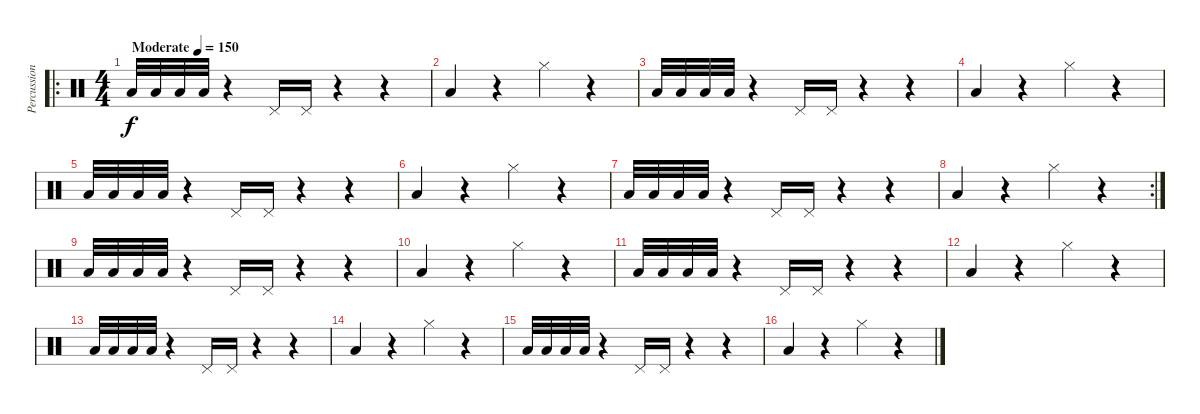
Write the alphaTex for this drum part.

\track ("Percussion" "Percussion") {instrument percussion}
\staff {score}
\articulation defaults
\ro
\ts (4 4)
\tempo (150 "Moderate")
\clef neutral
\ks c "Low Tom (hit)".32{dy f} "Low Tom (hit)".32 "Low Tom (hit)".32 "Low Tom (hit)".32
r.4 "Pedal Hi-Hat (hit)".16 "Pedal Hi-Hat (hit)".16 r.4 r.4 |
"Low Tom (hit)".4 r.4 "Hi-Hat (closed)".4 r.4 |
"Low Tom (hit)".32 "Low Tom (hit)".32 "Low Tom (hit)".32 "Low Tom (hit)".32 r.4 "Pedal Hi-Hat (hit)".16 "Pedal Hi-Hat (hit)".16 r.4 r.4 |
"Low Tom (hit)".4 r.4 "Hi-Hat (closed)".4 r.4 |
"Low Tom (hit)".32 "Low Tom (hit)".32 "Low Tom (hit)".32 "Low Tom (hit)".32 r.4 "Pedal Hi-Hat (hit)".16 "Pedal Hi-Hat (hit)".16 r.4 r.4 |
"Low Tom (hit)".4 r.4 "Hi-Hat (closed)".4 r.4 |
"Low Tom (hit)".32 "Low Tom (hit)".32 "Low Tom (hit)".32 "Low Tom (hit)".32 r.4 "Pedal Hi-Hat (hit)".16 "Pedal Hi-Hat (hit)".16 r.4 r.4 |
\rc 2 "Low Tom (hit)".4
r.4 "Hi-Hat (closed)".4 r.4 |
"Low Tom (hit)".32 "Low Tom (hit)".32 "Low Tom (hit)".32 "Low Tom (hit)".32 r.4 "Pedal Hi-Hat (hit)".16 "Pedal Hi-Hat (hit)".16 r.4 r.4 |
"Low Tom (hit)".4 r.4 "Hi-Hat (closed)".4 r.4 |
"Low Tom (hit)".32 "Low Tom (hit)".32 "Low Tom (hit)".32 "Low Tom (hit)".32 r.4 "Pedal Hi-Hat (hit)".16 "Pedal Hi-Hat (hit)".16 r.4 r.4 |
"Low Tom (hit)".4 r.4 "Hi-Hat (closed)".4 r.4 |
"Low Tom (hit)".32 "Low Tom (hit)".32 "Low Tom (hit)".32 "Low Tom (hit)".32 r.4 "Pedal Hi-Hat (hit)".16 "Pedal Hi-Hat (hit)".16 r.4 r.4 |
"Low Tom (hit)".4 r.4 "Hi-Hat (closed)".4 r.4 |
"Low Tom (hit)".32 "Low Tom (hit)".32 "Low Tom (hit)".32 "Low Tom (hit)".32 r.4 "Pedal Hi-Hat (hit)".16 "Pedal Hi-Hat (hit)".16 r.4 r.4 |
"Low Tom (hit)".4 r.4 "Hi-Hat (closed)".4 r.4
